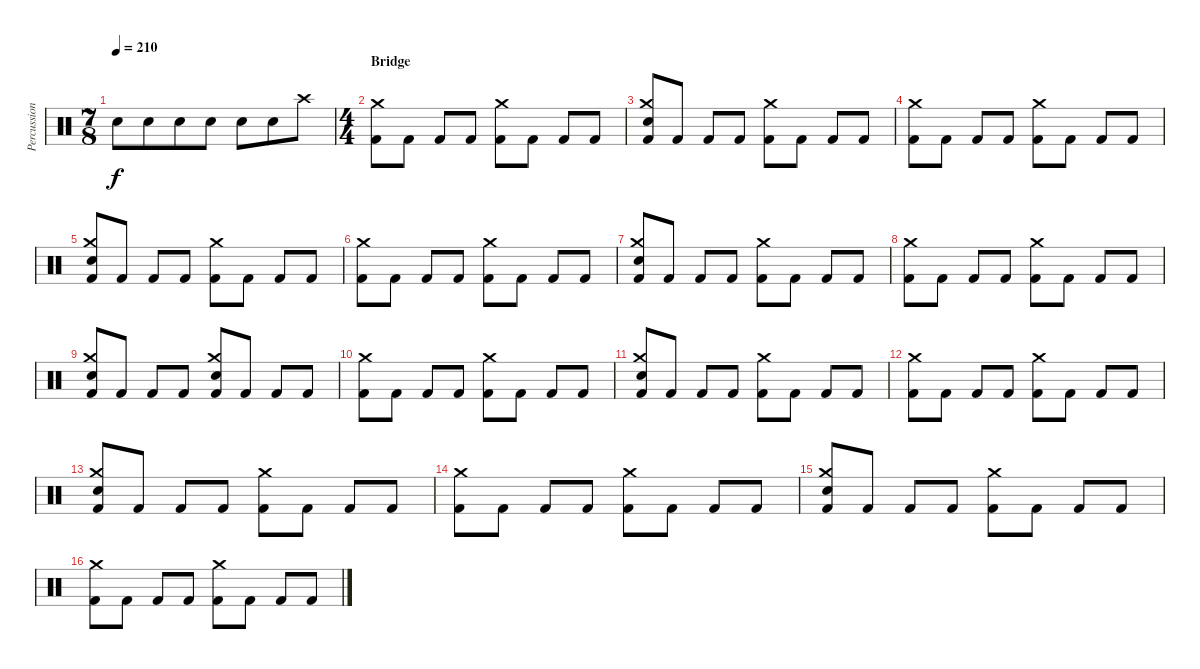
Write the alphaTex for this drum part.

\track ("Percussion" "Percussion") {instrument percussion}
\staff {score}
\articulation defaults
\ts (7 8)
\tempo 210
\clef neutral
\ks c "Electric Snare (hit)".8{dy f} "Electric Snare (hit)".8 "Electric Snare (hit)".8 "Electric Snare (hit)".8 "Electric Snare (hit)".8 "Electric Snare (hit)".8 "Crash high (hit)".8
|
\ts (4 4)
\section ("" "Bridge")
("Crash medium (hit)" "Kick (hit) 2").8 "Kick (hit) 2".8 "Kick (hit) 2".8 "Kick (hit) 2".8 ("Crash medium (hit)" "Kick (hit) 2").8 "Kick (hit) 2".8 "Kick (hit) 2".8 "Kick (hit) 2".8 |
("Crash medium (hit)" "Electric Snare (hit)" "Kick (hit) 2").8 "Kick (hit) 2".8 "Kick (hit) 2".8 "Kick (hit) 2".8 ("Crash medium (hit)" "Kick (hit) 2").8 "Kick (hit) 2".8 "Kick (hit) 2".8 "Kick (hit) 2".8 |
("Crash medium (hit)" "Kick (hit) 2").8 "Kick (hit) 2".8 "Kick (hit) 2".8 "Kick (hit) 2".8 ("Crash medium (hit)" "Kick (hit) 2").8 "Kick (hit) 2".8 "Kick (hit) 2".8 "Kick (hit) 2".8 |
("Crash medium (hit)" "Electric Snare (hit)" "Kick (hit) 2").8 "Kick (hit) 2".8 "Kick (hit) 2".8 "Kick (hit) 2".8 ("Crash medium (hit)" "Kick (hit) 2").8 "Kick (hit) 2".8 "Kick (hit) 2".8 "Kick (hit) 2".8 |
("Crash medium (hit)" "Kick (hit) 2").8 "Kick (hit) 2".8 "Kick (hit) 2".8 "Kick (hit) 2".8 ("Crash medium (hit)" "Kick (hit) 2").8 "Kick (hit) 2".8 "Kick (hit) 2".8 "Kick (hit) 2".8 |
("Crash medium (hit)" "Electric Snare (hit)" "Kick (hit) 2").8 "Kick (hit) 2".8 "Kick (hit) 2".8 "Kick (hit) 2".8 ("Crash medium (hit)" "Kick (hit) 2").8 "Kick (hit) 2".8 "Kick (hit) 2".8 "Kick (hit) 2".8 |
("Crash medium (hit)" "Kick (hit) 2").8 "Kick (hit) 2".8 "Kick (hit) 2".8 "Kick (hit) 2".8 ("Crash medium (hit)" "Kick (hit) 2").8 "Kick (hit) 2".8 "Kick (hit) 2".8 "Kick (hit) 2".8 |
("Crash medium (hit)" "Electric Snare (hit)" "Kick (hit) 2").8 "Kick (hit) 2".8 "Kick (hit) 2".8 "Kick (hit) 2".8 ("Crash medium (hit)" "Electric Snare (hit)" "Kick (hit) 2").8 "Kick (hit) 2".8 "Kick (hit) 2".8 "Kick (hit) 2".8 |
("Crash medium (hit)" "Kick (hit) 2").8 "Kick (hit) 2".8 "Kick (hit) 2".8 "Kick (hit) 2".8 ("Crash medium (hit)" "Kick (hit) 2").8 "Kick (hit) 2".8 "Kick (hit) 2".8 "Kick (hit) 2".8 |
("Crash medium (hit)" "Electric Snare (hit)" "Kick (hit) 2").8 "Kick (hit) 2".8 "Kick (hit) 2".8 "Kick (hit) 2".8 ("Crash medium (hit)" "Kick (hit) 2").8 "Kick (hit) 2".8 "Kick (hit) 2".8 "Kick (hit) 2".8 |
("Crash medium (hit)" "Kick (hit) 2").8 "Kick (hit) 2".8 "Kick (hit) 2".8 "Kick (hit) 2".8 ("Crash medium (hit)" "Kick (hit) 2").8 "Kick (hit) 2".8 "Kick (hit) 2".8 "Kick (hit) 2".8 |
("Crash medium (hit)" "Electric Snare (hit)" "Kick (hit) 2").8 "Kick (hit) 2".8 "Kick (hit) 2".8 "Kick (hit) 2".8 ("Crash medium (hit)" "Kick (hit) 2").8 "Kick (hit) 2".8 "Kick (hit) 2".8 "Kick (hit) 2".8 |
("Crash medium (hit)" "Kick (hit) 2").8 "Kick (hit) 2".8 "Kick (hit) 2".8 "Kick (hit) 2".8 ("Crash medium (hit)" "Kick (hit) 2").8 "Kick (hit) 2".8 "Kick (hit) 2".8 "Kick (hit) 2".8 |
("Crash medium (hit)" "Electric Snare (hit)" "Kick (hit) 2").8 "Kick (hit) 2".8 "Kick (hit) 2".8 "Kick (hit) 2".8 ("Crash medium (hit)" "Kick (hit) 2").8 "Kick (hit) 2".8 "Kick (hit) 2".8 "Kick (hit) 2".8 |
("Crash medium (hit)" "Kick (hit) 2").8 "Kick (hit) 2".8 "Kick (hit) 2".8 "Kick (hit) 2".8 ("Crash medium (hit)" "Kick (hit) 2").8 "Kick (hit) 2".8 "Kick (hit) 2".8 "Kick (hit) 2".8
